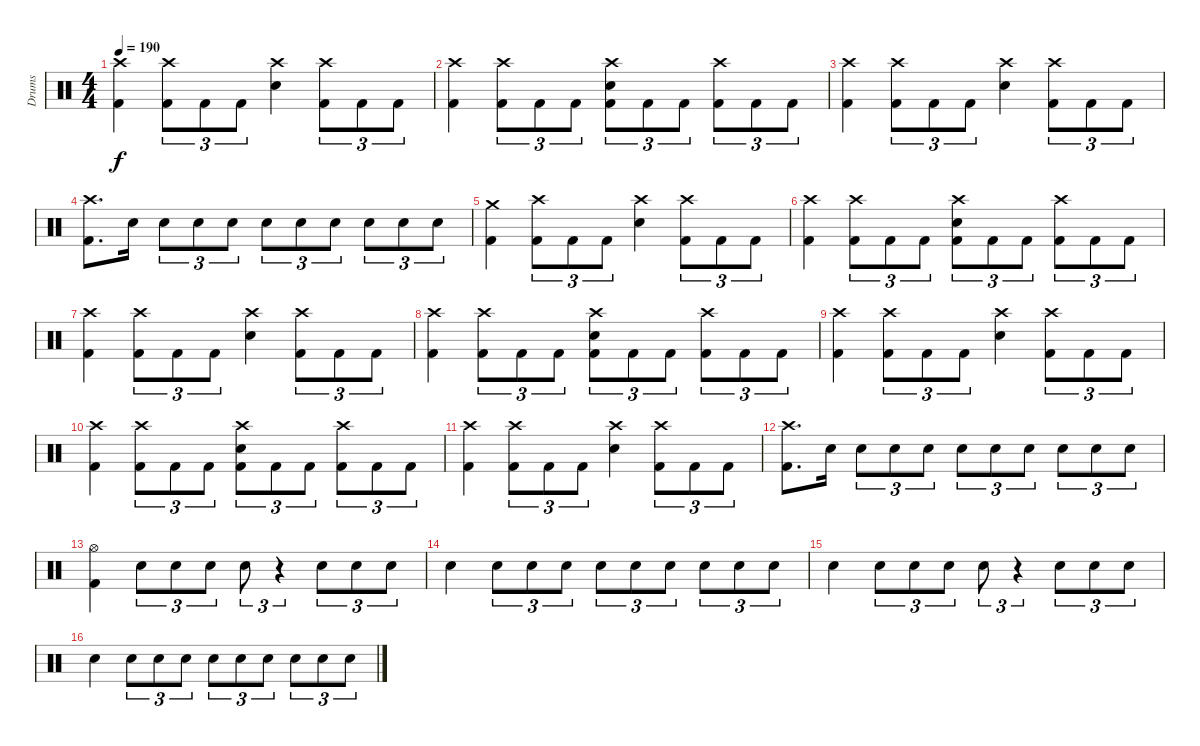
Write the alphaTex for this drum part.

\track ("Drums" "Drums") {instrument percussion}
\staff {score}
\articulation defaults
\ts (4 4)
\tempo 190
\clef neutral
\ks c
("Crash high (hit)" "Kick (hit) 2").4{dy f} ("Crash high (hit)" "Kick (hit) 2").8{tu (3 2)} "Kick (hit) 2".8{tu (3 2)} "Kick (hit) 2".8{tu (3 2)} ("Crash high (hit)" "Snare (hit) 2").4 ("Crash high (hit)" "Kick (hit) 2").8{tu (3 2)} "Kick (hit) 2".8{tu (3 2)} "Kick (hit) 2".8{tu (3 2)} |
("Crash high (hit)" "Kick (hit) 2").4 ("Crash high (hit)" "Kick (hit) 2").8{tu (3 2)} "Kick (hit) 2".8{tu (3 2)} "Kick (hit) 2".8{tu (3 2)} ("Crash high (hit)" "Snare (hit) 2" "Kick (hit) 2").8{tu (3 2)} "Kick (hit) 2".8{tu (3 2)} "Kick (hit) 2".8{tu (3 2)} ("Crash high (hit)" "Kick (hit) 2").8{tu (3 2)} "Kick (hit) 2".8{tu (3 2)} "Kick (hit) 2".8{tu (3 2)} |
("Crash high (hit)" "Kick (hit) 2").4 ("Crash high (hit)" "Kick (hit) 2").8{tu (3 2)} "Kick (hit) 2".8{tu (3 2)} "Kick (hit) 2".8{tu (3 2)} ("Crash high (hit)" "Snare (hit) 2").4 ("Crash high (hit)" "Kick (hit) 2").8{tu (3 2)} "Kick (hit) 2".8{tu (3 2)} "Kick (hit) 2".8{tu (3 2)} |
("Crash high (hit)" "Kick (hit) 2").8{d} "Snare (hit) 2".16 "Snare (hit) 2".8{tu (3 2)} "Snare (hit) 2".8{tu (3 2)} "Snare (hit) 2".8{tu (3 2)} "Snare (hit) 2".8{tu (3 2)} "Snare (hit) 2".8{tu (3 2)} "Snare (hit) 2".8{tu (3 2)} "Snare (hit) 2".8{tu (3 2)} "Snare (hit) 2".8{tu (3 2)} "Snare (hit) 2".8{tu (3 2)} |
("Crash medium (hit)" "Kick (hit) 2").4 ("Crash high (hit)" "Kick (hit) 2").8{tu (3 2)} "Kick (hit) 2".8{tu (3 2)} "Kick (hit) 2".8{tu (3 2)} ("Crash high (hit)" "Snare (hit) 2").4 ("Crash high (hit)" "Kick (hit) 2").8{tu (3 2)} "Kick (hit) 2".8{tu (3 2)} "Kick (hit) 2".8{tu (3 2)} |
("Crash high (hit)" "Kick (hit) 2").4 ("Crash high (hit)" "Kick (hit) 2").8{tu (3 2)} "Kick (hit) 2".8{tu (3 2)} "Kick (hit) 2".8{tu (3 2)} ("Crash high (hit)" "Snare (hit) 2" "Kick (hit) 2").8{tu (3 2)} "Kick (hit) 2".8{tu (3 2)} "Kick (hit) 2".8{tu (3 2)} ("Crash high (hit)" "Kick (hit) 2").8{tu (3 2)} "Kick (hit) 2".8{tu (3 2)} "Kick (hit) 2".8{tu (3 2)} |
("Crash high (hit)" "Kick (hit) 2").4 ("Crash high (hit)" "Kick (hit) 2").8{tu (3 2)} "Kick (hit) 2".8{tu (3 2)} "Kick (hit) 2".8{tu (3 2)} ("Crash high (hit)" "Snare (hit) 2").4 ("Crash high (hit)" "Kick (hit) 2").8{tu (3 2)} "Kick (hit) 2".8{tu (3 2)} "Kick (hit) 2".8{tu (3 2)} |
("Crash high (hit)" "Kick (hit) 2").4 ("Crash high (hit)" "Kick (hit) 2").8{tu (3 2)} "Kick (hit) 2".8{tu (3 2)} "Kick (hit) 2".8{tu (3 2)} ("Crash high (hit)" "Snare (hit) 2" "Kick (hit) 2").8{tu (3 2)} "Kick (hit) 2".8{tu (3 2)} "Kick (hit) 2".8{tu (3 2)} ("Crash high (hit)" "Kick (hit) 2").8{tu (3 2)} "Kick (hit) 2".8{tu (3 2)} "Kick (hit) 2".8{tu (3 2)} |
("Crash high (hit)" "Kick (hit) 2").4 ("Crash high (hit)" "Kick (hit) 2").8{tu (3 2)} "Kick (hit) 2".8{tu (3 2)} "Kick (hit) 2".8{tu (3 2)} ("Crash high (hit)" "Snare (hit) 2").4 ("Crash high (hit)" "Kick (hit) 2").8{tu (3 2)} "Kick (hit) 2".8{tu (3 2)} "Kick (hit) 2".8{tu (3 2)} |
("Crash high (hit)" "Kick (hit) 2").4 ("Crash high (hit)" "Kick (hit) 2").8{tu (3 2)} "Kick (hit) 2".8{tu (3 2)} "Kick (hit) 2".8{tu (3 2)} ("Crash high (hit)" "Snare (hit) 2" "Kick (hit) 2").8{tu (3 2)} "Kick (hit) 2".8{tu (3 2)} "Kick (hit) 2".8{tu (3 2)} ("Crash high (hit)" "Kick (hit) 2").8{tu (3 2)} "Kick (hit) 2".8{tu (3 2)} "Kick (hit) 2".8{tu (3 2)} |
("Crash high (hit)" "Kick (hit) 2").4 ("Crash high (hit)" "Kick (hit) 2").8{tu (3 2)} "Kick (hit) 2".8{tu (3 2)} "Kick (hit) 2".8{tu (3 2)} ("Crash high (hit)" "Snare (hit) 2").4 ("Crash high (hit)" "Kick (hit) 2").8{tu (3 2)} "Kick (hit) 2".8{tu (3 2)} "Kick (hit) 2".8{tu (3 2)} |
("Crash high (hit)" "Kick (hit) 2").8{d} "Snare (hit) 2".16 "Snare (hit) 2".8{tu (3 2)} "Snare (hit) 2".8{tu (3 2)} "Snare (hit) 2".8{tu (3 2)} "Snare (hit) 2".8{tu (3 2)} "Snare (hit) 2".8{tu (3 2)} "Snare (hit) 2".8{tu (3 2)} "Snare (hit) 2".8{tu (3 2)} "Snare (hit) 2".8{tu (3 2)} "Snare (hit) 2".8{tu (3 2)} |
("Hi-Hat (open)" "Kick (hit) 2").4 "Snare (hit) 2".8{tu (3 2)} "Snare (hit) 2".8{tu (3 2)} "Snare (hit) 2".8{tu (3 2)} "Snare (hit) 2".8{tu (3 2)} r.4{tu (3 2)} "Snare (hit) 2".8{tu (3 2)} "Snare (hit) 2".8{tu (3 2)} "Snare (hit) 2".8{tu (3 2)} |
"Snare (hit) 2".4 "Snare (hit) 2".8{tu (3 2)} "Snare (hit) 2".8{tu (3 2)} "Snare (hit) 2".8{tu (3 2)} "Snare (hit) 2".8{tu (3 2)} "Snare (hit) 2".8{tu (3 2)} "Snare (hit) 2".8{tu (3 2)} "Snare (hit) 2".8{tu (3 2)} "Snare (hit) 2".8{tu (3 2)} "Snare (hit) 2".8{tu (3 2)} |
"Snare (hit) 2".4 "Snare (hit) 2".8{tu (3 2)} "Snare (hit) 2".8{tu (3 2)} "Snare (hit) 2".8{tu (3 2)} "Snare (hit) 2".8{tu (3 2)} r.4{tu (3 2)} "Snare (hit) 2".8{tu (3 2)} "Snare (hit) 2".8{tu (3 2)} "Snare (hit) 2".8{tu (3 2)} |
"Snare (hit) 2".4 "Snare (hit) 2".8{tu (3 2)} "Snare (hit) 2".8{tu (3 2)} "Snare (hit) 2".8{tu (3 2)} "Snare (hit) 2".8{tu (3 2)} "Snare (hit) 2".8{tu (3 2)} "Snare (hit) 2".8{tu (3 2)} "Snare (hit) 2".8{tu (3 2)} "Snare (hit) 2".8{tu (3 2)} "Snare (hit) 2".8{tu (3 2)}
